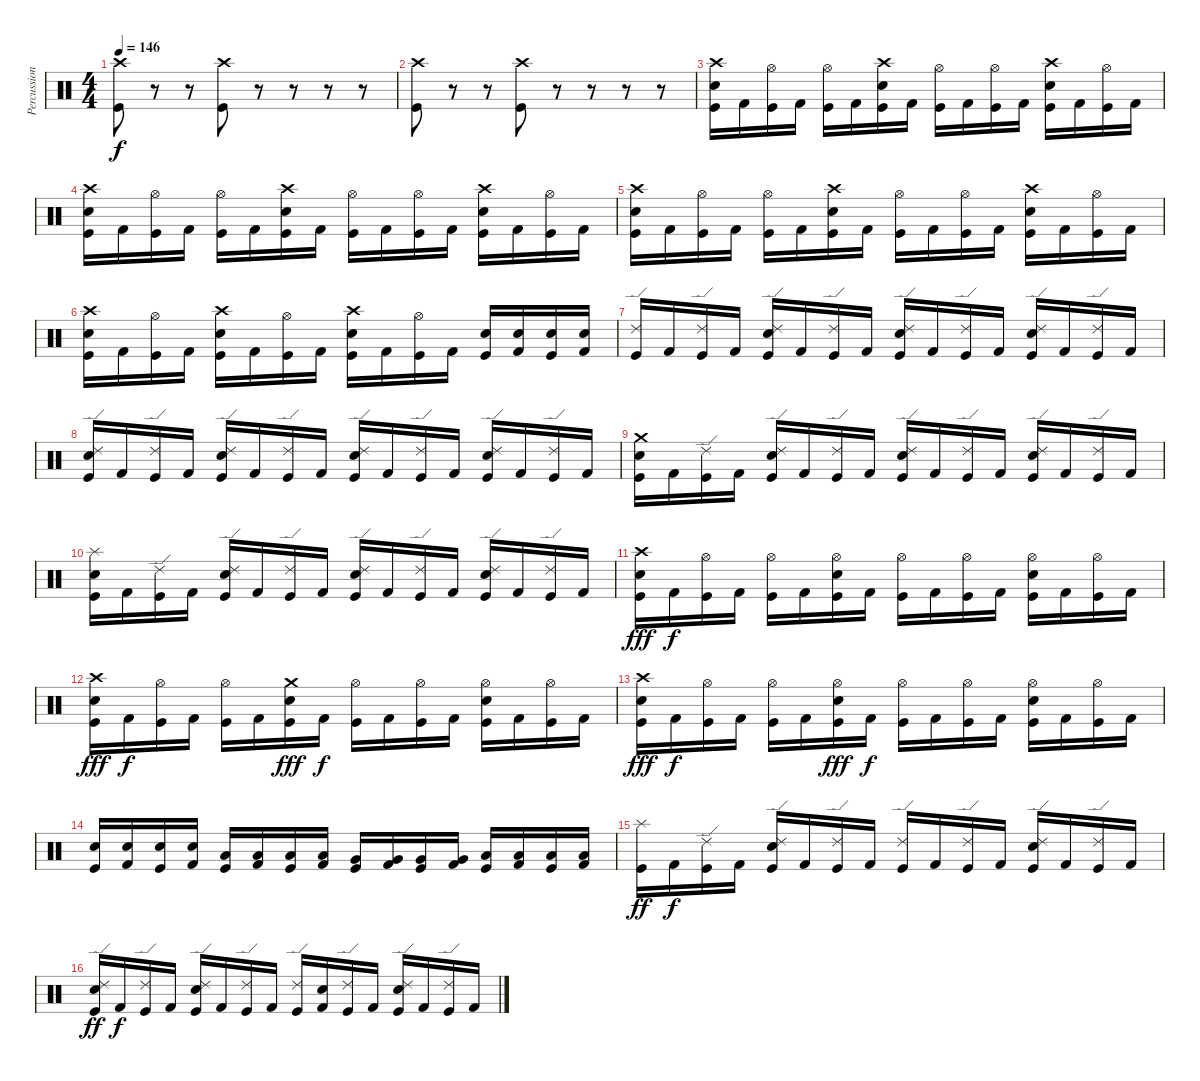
\track ("Percussion" "Percussion") {instrument percussion}
\staff {score}
\articulation defaults
\ts (4 4)
\tempo 146
\clef neutral
\ks c
("Crash high (hit)" "Kick (hit)").8{dy f} r.8 r.8 ("Crash high (hit)" "Kick (hit)").8 r.8 r.8 r.8 r.8 |
("Crash high (hit)" "Kick (hit)").8 r.8 r.8 ("Crash high (hit)" "Kick (hit)").8 r.8 r.8 r.8 r.8 |
("Crash high (hit)" "Electric Snare (hit)" "Kick (hit)").16 "Kick (hit) 2".16 ("Hi-Hat (open)" "Kick (hit)").16 "Kick (hit) 2".16 ("Hi-Hat (open)" "Kick (hit)").16 "Kick (hit) 2".16 ("Crash high (hit)" "Electric Snare (hit)" "Kick (hit)").16 "Kick (hit) 2".16 ("Hi-Hat (open)" "Kick (hit)").16 "Kick (hit) 2".16 ("Hi-Hat (open)" "Kick (hit)").16 "Kick (hit) 2".16 ("Crash high (hit)" "Electric Snare (hit)" "Kick (hit)").16 "Kick (hit) 2".16 ("Hi-Hat (open)" "Kick (hit)").16 "Kick (hit) 2".16 |
("Crash high (hit)" "Electric Snare (hit)" "Kick (hit)").16 "Kick (hit) 2".16 ("Hi-Hat (open)" "Kick (hit)").16 "Kick (hit) 2".16 ("Hi-Hat (open)" "Kick (hit)").16 "Kick (hit) 2".16 ("Crash high (hit)" "Electric Snare (hit)" "Kick (hit)").16 "Kick (hit) 2".16 ("Hi-Hat (open)" "Kick (hit)").16 "Kick (hit) 2".16 ("Hi-Hat (open)" "Kick (hit)").16 "Kick (hit) 2".16 ("Crash high (hit)" "Electric Snare (hit)" "Kick (hit)").16 "Kick (hit) 2".16 ("Hi-Hat (open)" "Kick (hit)").16 "Kick (hit) 2".16 |
("Crash high (hit)" "Electric Snare (hit)" "Kick (hit)").16 "Kick (hit) 2".16 ("Hi-Hat (open)" "Kick (hit)").16 "Kick (hit) 2".16 ("Hi-Hat (open)" "Kick (hit)").16 "Kick (hit) 2".16 ("Crash high (hit)" "Electric Snare (hit)" "Kick (hit)").16 "Kick (hit) 2".16 ("Hi-Hat (open)" "Kick (hit)").16 "Kick (hit) 2".16 ("Hi-Hat (open)" "Kick (hit)").16 "Kick (hit) 2".16 ("Crash high (hit)" "Electric Snare (hit)" "Kick (hit)").16 "Kick (hit) 2".16 ("Hi-Hat (open)" "Kick (hit)").16 "Kick (hit) 2".16 |
("Crash high (hit)" "Electric Snare (hit)" "Kick (hit)").16 "Kick (hit) 2".16 ("Hi-Hat (open)" "Kick (hit)").16 "Kick (hit) 2".16 ("Crash high (hit)" "Electric Snare (hit)" "Kick (hit)").16 "Kick (hit) 2".16 ("Hi-Hat (open)" "Kick (hit)").16 "Kick (hit) 2".16 ("Crash high (hit)" "Electric Snare (hit)" "Kick (hit)").16 "Kick (hit) 2".16 ("Hi-Hat (open)" "Kick (hit)").16 "Kick (hit) 2".16 ("Electric Snare (hit)" "Kick (hit)").16 ("Electric Snare (hit)" "Kick (hit) 2").16 ("Electric Snare (hit)" "Kick (hit)").16 ("Electric Snare (hit)" "Kick (hit) 2").16 |
("Ride (edge) 2" "Kick (hit)").16 "Kick (hit) 2".16 ("Ride (edge) 2" "Kick (hit)").16 "Kick (hit) 2".16 ("Ride (edge) 2" "Electric Snare (hit)" "Kick (hit)").16 "Kick (hit) 2".16 ("Ride (edge) 2" "Kick (hit)").16 "Kick (hit) 2".16 ("Ride (edge) 2" "Electric Snare (hit)" "Kick (hit)").16 "Kick (hit) 2".16 ("Ride (edge) 2" "Kick (hit)").16 "Kick (hit) 2".16 ("Ride (edge) 2" "Electric Snare (hit)" "Kick (hit)").16 "Kick (hit) 2".16 ("Ride (edge) 2" "Kick (hit)").16 "Kick (hit) 2".16 |
("Ride (edge) 2" "Electric Snare (hit)" "Kick (hit)").16 "Kick (hit) 2".16 ("Ride (edge) 2" "Kick (hit)").16 "Kick (hit) 2".16 ("Ride (edge) 2" "Electric Snare (hit)" "Kick (hit)").16 "Kick (hit) 2".16 ("Ride (edge) 2" "Kick (hit)").16 "Kick (hit) 2".16 ("Ride (edge) 2" "Electric Snare (hit)" "Kick (hit)").16 "Kick (hit) 2".16 ("Ride (edge) 2" "Kick (hit)").16 "Kick (hit) 2".16 ("Ride (edge) 2" "Electric Snare (hit)" "Kick (hit)").16 "Kick (hit) 2".16 ("Ride (edge) 2" "Kick (hit)").16 "Kick (hit) 2".16 |
("Crash medium (hit)" "Electric Snare (hit)" "Kick (hit)").16 "Kick (hit) 2".16 ("Ride (edge) 2" "Kick (hit)").16 "Kick (hit) 2".16 ("Ride (edge) 2" "Electric Snare (hit)" "Kick (hit)").16 "Kick (hit) 2".16 ("Ride (edge) 2" "Kick (hit)").16 "Kick (hit) 2".16 ("Ride (edge) 2" "Electric Snare (hit)" "Kick (hit)").16 "Kick (hit) 2".16 ("Ride (edge) 2" "Kick (hit)").16 "Kick (hit) 2".16 ("Ride (edge) 2" "Electric Snare (hit)" "Kick (hit)").16 "Kick (hit) 2".16 ("Ride (edge) 2" "Kick (hit)").16 "Kick (hit) 2".16 |
("Splash (hit)" "Electric Snare (hit)" "Kick (hit)").16 "Kick (hit) 2".16 ("Ride (edge) 2" "Kick (hit)").16 "Kick (hit) 2".16 ("Ride (edge) 2" "Electric Snare (hit)" "Kick (hit)").16 "Kick (hit) 2".16 ("Ride (edge) 2" "Kick (hit)").16 "Kick (hit) 2".16 ("Ride (edge) 2" "Electric Snare (hit)" "Kick (hit)").16 "Kick (hit) 2".16 ("Ride (edge) 2" "Kick (hit)").16 "Kick (hit) 2".16 ("Ride (edge) 2" "Electric Snare (hit)" "Kick (hit)").16 "Kick (hit) 2".16 ("Ride (edge) 2" "Kick (hit)").16 "Kick (hit) 2".16 |
("Crash high (hit)" "Electric Snare (hit)" "Kick (hit)").16{dy fff} "Kick (hit) 2".16{dy f} ("Hi-Hat (open)" "Kick (hit)").16 "Kick (hit) 2".16 ("Hi-Hat (open)" "Kick (hit)").16 "Kick (hit) 2".16 ("Hi-Hat (open)" "Electric Snare (hit)" "Kick (hit)").16 "Kick (hit) 2".16 ("Hi-Hat (open)" "Kick (hit)").16 "Kick (hit) 2".16 ("Hi-Hat (open)" "Kick (hit)").16 "Kick (hit) 2".16 ("Hi-Hat (open)" "Electric Snare (hit)" "Kick (hit)").16 "Kick (hit) 2".16 ("Hi-Hat (open)" "Kick (hit)").16 "Kick (hit) 2".16 |
("Crash high (hit)" "Electric Snare (hit)" "Kick (hit)").16{dy fff} "Kick (hit) 2".16{dy f} ("Hi-Hat (open)" "Kick (hit)").16 "Kick (hit) 2".16 ("Hi-Hat (open)" "Kick (hit)").16 "Kick (hit) 2".16 ("Crash medium (hit)" "Electric Snare (hit)" "Kick (hit)").16{dy fff} "Kick (hit) 2".16{dy f} ("Hi-Hat (open)" "Kick (hit)").16 "Kick (hit) 2".16 ("Hi-Hat (open)" "Kick (hit)").16 "Kick (hit) 2".16 ("Hi-Hat (open)" "Electric Snare (hit)" "Kick (hit)").16 "Kick (hit) 2".16 ("Hi-Hat (open)" "Kick (hit)").16 "Kick (hit) 2".16 |
("Crash high (hit)" "Electric Snare (hit)" "Kick (hit)").16{dy fff} "Kick (hit) 2".16{dy f} ("Hi-Hat (open)" "Kick (hit)").16 "Kick (hit) 2".16 ("Hi-Hat (open)" "Kick (hit)").16 "Kick (hit) 2".16 ("Hi-Hat (open)" "Electric Snare (hit)" "Kick (hit)").16{dy fff} "Kick (hit) 2".16{dy f} ("Hi-Hat (open)" "Kick (hit)").16 "Kick (hit) 2".16 ("Hi-Hat (open)" "Kick (hit)").16 "Kick (hit) 2".16 ("Hi-Hat (open)" "Electric Snare (hit)" "Kick (hit)").16 "Kick (hit) 2".16 ("Hi-Hat (open)" "Kick (hit)").16 "Kick (hit) 2".16 |
("Electric Snare (hit)" "Kick (hit)").16 ("Electric Snare (hit)" "Kick (hit) 2").16 ("Electric Snare (hit)" "Kick (hit)").16 ("Electric Snare (hit)" "Kick (hit) 2").16 ("Low Tom (hit)" "Kick (hit)").16 ("Low Tom (hit)" "Kick (hit) 2").16 ("Low Tom (hit)" "Kick (hit)").16 ("Low Tom (hit)" "Kick (hit) 2").16 ("Very Low Tom (hit)" "Kick (hit)").16 ("Very Low Tom (hit)" "Kick (hit) 2").16 ("Very Low Tom (hit)" "Kick (hit)").16 ("Very Low Tom (hit)" "Kick (hit) 2").16 ("Low Floor Tom (hit)" "Kick (hit)").16 ("Low Floor Tom (hit)" "Kick (hit) 2").16 ("Low Floor Tom (hit)" "Kick (hit)").16 ("Low Floor Tom (hit)" "Kick (hit) 2").16 |
("Splash (hit)" "Kick (hit)").16{dy ff} "Kick (hit) 2".16{dy f} ("Ride (edge) 2" "Kick (hit)").16 "Kick (hit) 2".16 ("Ride (edge) 2" "Electric Snare (hit)" "Kick (hit)").16 "Kick (hit) 2".16 ("Ride (edge) 2" "Kick (hit)").16 "Kick (hit) 2".16 ("Ride (edge) 2" "Kick (hit)").16 "Kick (hit) 2".16 ("Ride (edge) 2" "Kick (hit)").16 "Kick (hit) 2".16 ("Ride (edge) 2" "Electric Snare (hit)" "Kick (hit)").16 "Kick (hit) 2".16 ("Ride (edge) 2" "Kick (hit)").16 "Kick (hit) 2".16 |
("Ride (edge) 2" "Electric Snare (hit)" "Kick (hit)").16{dy ff} "Kick (hit) 2".16{dy f} ("Ride (edge) 2" "Kick (hit)").16 "Kick (hit) 2".16 ("Ride (edge) 2" "Electric Snare (hit)" "Kick (hit)").16 "Kick (hit) 2".16 ("Ride (edge) 2" "Kick (hit)").16 "Kick (hit) 2".16 ("Ride (edge) 2" "Kick (hit)").16 ("Electric Snare (hit)" "Kick (hit) 2").16 ("Ride (edge) 2" "Kick (hit)").16 "Kick (hit) 2".16 ("Ride (edge) 2" "Electric Snare (hit)" "Kick (hit)").16 "Kick (hit) 2".16 ("Ride (edge) 2" "Kick (hit)").16 "Kick (hit) 2".16
